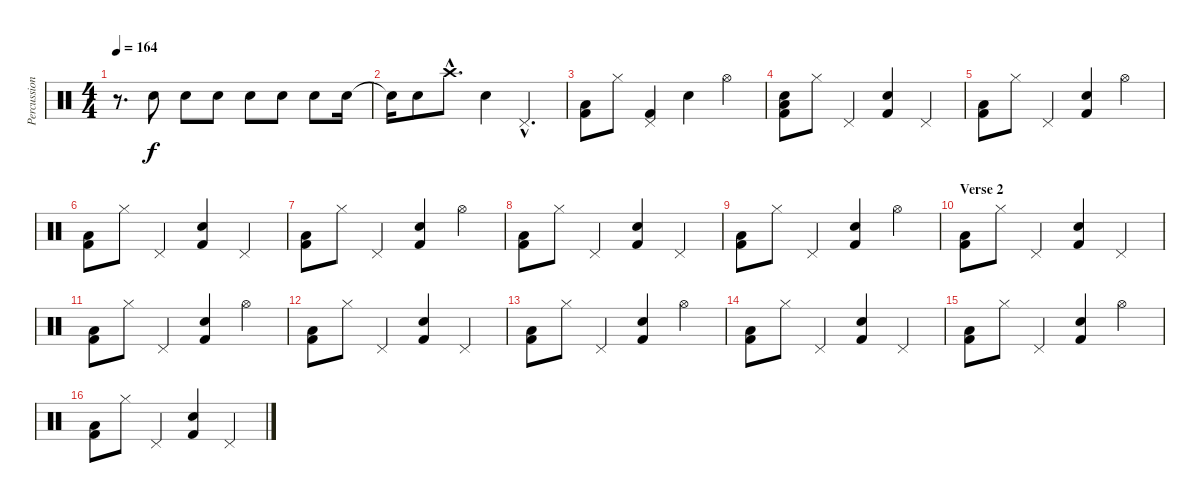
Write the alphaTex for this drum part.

\track ("Percussion" "Percussion") {instrument percussion}
\staff {score}
\articulation defaults
\ts (4 4)
\tempo 164
\clef neutral
\ks c
r.8{d dy f volume 5} "Snare (hit) 2".8{volume 16} "Snare (hit) 2".8 "Snare (hit) 2".8 "Snare (hit) 2".8 "Snare (hit) 2".8 "Snare (hit) 2".8 "Snare (hit) 2".16 |
"Snare (hit) 2"{t}.16 "Snare (hit) 2".8 "Crash high (hit)"{hac}.8{d} "Snare (hit) 2".4 "Pedal Hi-Hat (hit)"{hac}.4{d} |
("Low Tom (hit)" "Kick (hit) 2").8 "Hi-Hat (closed)".8 ("Pedal Hi-Hat (hit)" "Kick (hit) 2").4 "Snare (hit) 2".4 "Hi-Hat (open)".4 |
("Low Tom (hit)" "Kick (hit) 2" "Snare (hit)").8 "Hi-Hat (closed)".8 "Pedal Hi-Hat (hit)".4 ("Snare (hit) 2" "Kick (hit) 2").4 "Pedal Hi-Hat (hit)".4 |
("Low Tom (hit)" "Kick (hit) 2").8 "Hi-Hat (closed)".8 "Pedal Hi-Hat (hit)".4 ("Snare (hit) 2" "Kick (hit) 2").4 "Hi-Hat (open)".4 |
("Low Tom (hit)" "Kick (hit) 2").8 "Hi-Hat (closed)".8 "Pedal Hi-Hat (hit)".4 ("Snare (hit) 2" "Kick (hit) 2").4 "Pedal Hi-Hat (hit)".4 |
("Low Tom (hit)" "Kick (hit) 2").8 "Hi-Hat (closed)".8 "Pedal Hi-Hat (hit)".4 ("Snare (hit) 2" "Kick (hit) 2").4 "Hi-Hat (open)".4 |
("Low Tom (hit)" "Kick (hit) 2").8 "Hi-Hat (closed)".8 "Pedal Hi-Hat (hit)".4 ("Snare (hit) 2" "Kick (hit) 2").4 "Pedal Hi-Hat (hit)".4 |
("Low Tom (hit)" "Kick (hit) 2").8 "Hi-Hat (closed)".8 "Pedal Hi-Hat (hit)".4 ("Snare (hit) 2" "Kick (hit) 2").4 "Hi-Hat (open)".4 |
\section ("" "Verse 2")
("Low Tom (hit)" "Kick (hit) 2").8 "Hi-Hat (closed)".8 "Pedal Hi-Hat (hit)".4 ("Snare (hit) 2" "Kick (hit) 2").4 "Pedal Hi-Hat (hit)".4 |
("Low Tom (hit)" "Kick (hit) 2").8 "Hi-Hat (closed)".8 "Pedal Hi-Hat (hit)".4 ("Snare (hit) 2" "Kick (hit) 2").4 "Hi-Hat (open)".4 |
("Low Tom (hit)" "Kick (hit) 2").8 "Hi-Hat (closed)".8 "Pedal Hi-Hat (hit)".4 ("Snare (hit) 2" "Kick (hit) 2").4 "Pedal Hi-Hat (hit)".4 |
("Low Tom (hit)" "Kick (hit) 2").8 "Hi-Hat (closed)".8 "Pedal Hi-Hat (hit)".4 ("Snare (hit) 2" "Kick (hit) 2").4 "Hi-Hat (open)".4 |
("Low Tom (hit)" "Kick (hit) 2").8 "Hi-Hat (closed)".8 "Pedal Hi-Hat (hit)".4 ("Snare (hit) 2" "Kick (hit) 2").4 "Pedal Hi-Hat (hit)".4 |
("Low Tom (hit)" "Kick (hit) 2").8 "Hi-Hat (closed)".8 "Pedal Hi-Hat (hit)".4 ("Snare (hit) 2" "Kick (hit) 2").4 "Hi-Hat (open)".4 |
("Low Tom (hit)" "Kick (hit) 2").8 "Hi-Hat (closed)".8 "Pedal Hi-Hat (hit)".4 ("Snare (hit) 2" "Kick (hit) 2").4 "Pedal Hi-Hat (hit)".4
